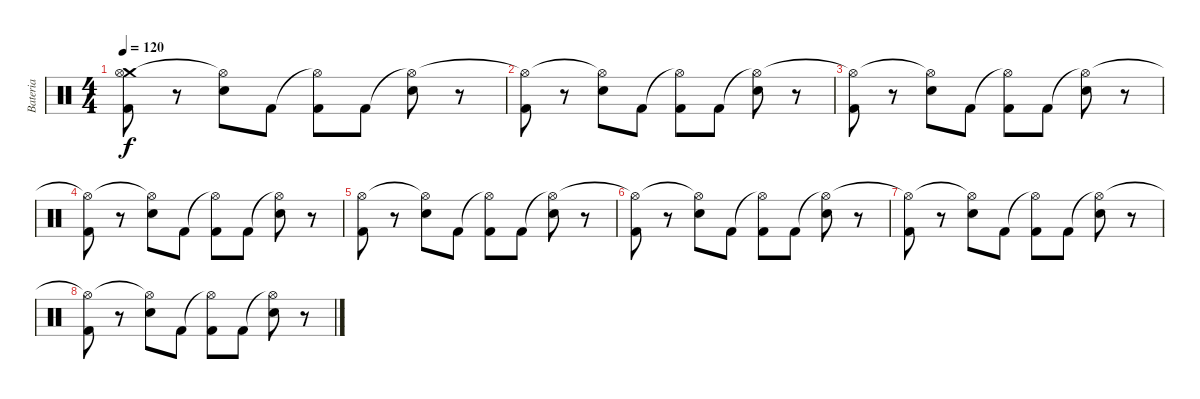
\track ("Bateria" "Bateria") {instrument percussion}
\staff {score}
\articulation defaults
\ts (4 4)
\tempo 120
\clef neutral
\ks c
("Crash medium (hit)" "Hi-Hat (open)" "Kick (hit) 2").8{dy f volume 10} r.8 ("Hi-Hat (open)"{t} "Electric Snare (hit)").8 "Kick (hit) 2".8 ("Hi-Hat (open)"{t} "Kick (hit) 2").8 "Kick (hit) 2".8 ("Hi-Hat (open)"{t} "Electric Snare (hit)").8 r.8 |
("Hi-Hat (open)"{t} "Kick (hit) 2").8 r.8 ("Hi-Hat (open)"{t} "Electric Snare (hit)").8 "Kick (hit) 2".8 ("Hi-Hat (open)"{t} "Kick (hit) 2").8 "Kick (hit) 2".8 ("Hi-Hat (open)"{t} "Electric Snare (hit)").8 r.8 |
("Hi-Hat (open)"{t} "Kick (hit) 2").8{volume 6} r.8 ("Hi-Hat (open)"{t} "Electric Snare (hit)").8 "Kick (hit) 2".8 ("Hi-Hat (open)"{t} "Kick (hit) 2").8 "Kick (hit) 2".8 ("Hi-Hat (open)"{t} "Electric Snare (hit)").8 r.8 |
("Hi-Hat (open)"{t} "Kick (hit) 2").8 r.8 ("Hi-Hat (open)"{t} "Electric Snare (hit)").8 "Kick (hit) 2".8 ("Hi-Hat (open)"{t} "Kick (hit) 2").8 "Kick (hit) 2".8 ("Hi-Hat (open)"{t} "Electric Snare (hit)").8 r.8 |
("Hi-Hat (open)" "Kick (hit) 2").8{volume 4} r.8 ("Hi-Hat (open)"{t} "Electric Snare (hit)").8 "Kick (hit) 2".8 ("Hi-Hat (open)"{t} "Kick (hit) 2").8 "Kick (hit) 2".8 ("Hi-Hat (open)"{t} "Electric Snare (hit)").8 r.8 |
("Hi-Hat (open)"{t} "Kick (hit) 2").8 r.8 ("Hi-Hat (open)"{t} "Electric Snare (hit)").8 "Kick (hit) 2".8 ("Hi-Hat (open)"{t} "Kick (hit) 2").8 "Kick (hit) 2".8 ("Hi-Hat (open)"{t} "Electric Snare (hit)").8 r.8 |
("Hi-Hat (open)"{t} "Kick (hit) 2").8{volume 2} r.8 ("Hi-Hat (open)"{t} "Electric Snare (hit)").8 "Kick (hit) 2".8 ("Hi-Hat (open)"{t} "Kick (hit) 2").8 "Kick (hit) 2".8 ("Hi-Hat (open)"{t} "Electric Snare (hit)").8 r.8 |
("Hi-Hat (open)"{t} "Kick (hit) 2").8 r.8 ("Hi-Hat (open)"{t} "Electric Snare (hit)").8 "Kick (hit) 2".8 ("Hi-Hat (open)"{t} "Kick (hit) 2").8 "Kick (hit) 2".8 ("Hi-Hat (open)"{t} "Electric Snare (hit)").8 r.8
